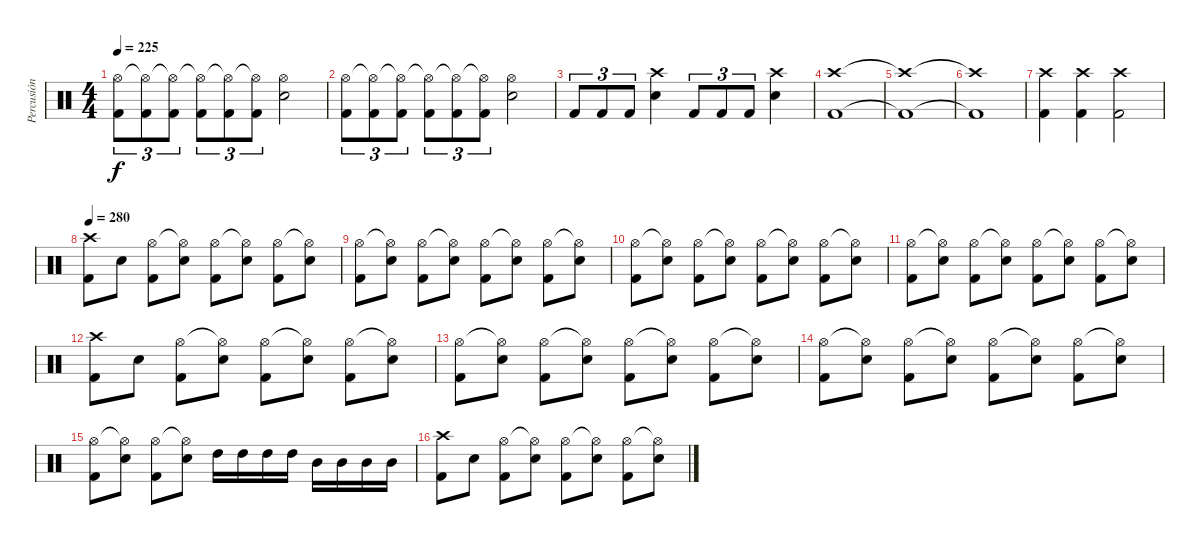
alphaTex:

\track ("Percusión" "Percusión") {instrument percussion}
\staff {score}
\articulation defaults
\ts (4 4)
\tempo 225
\clef neutral
\ks c
("Kick (hit) 2" "Hi-Hat (open)").8{tu (3 2) dy f} ("Kick (hit) 2" "Hi-Hat (open)"{t}).8{tu (3 2)} ("Kick (hit) 2" "Hi-Hat (open)"{t}).8{tu (3 2)} ("Kick (hit) 2" "Hi-Hat (open)"{t}).8{tu (3 2)} ("Kick (hit) 2" "Hi-Hat (open)"{t}).8{tu (3 2)} ("Kick (hit) 2" "Hi-Hat (open)"{t}).8{tu (3 2)} ("Snare (hit) 2" "Hi-Hat (open)").2 |
("Kick (hit) 2" "Hi-Hat (open)").8{tu (3 2)} ("Kick (hit) 2" "Hi-Hat (open)"{t}).8{tu (3 2)} ("Kick (hit) 2" "Hi-Hat (open)"{t}).8{tu (3 2)} ("Kick (hit) 2" "Hi-Hat (open)"{t}).8{tu (3 2)} ("Kick (hit) 2" "Hi-Hat (open)"{t}).8{tu (3 2)} ("Kick (hit) 2" "Hi-Hat (open)"{t}).8{tu (3 2)} ("Snare (hit) 2" "Hi-Hat (open)").2 |
"Kick (hit) 2".8{tu (3 2)} "Kick (hit) 2".8{tu (3 2)} "Kick (hit) 2".8{tu (3 2)} ("Snare (hit) 2" "Crash high (hit)").4 "Kick (hit) 2".8{tu (3 2)} "Kick (hit) 2".8{tu (3 2)} "Kick (hit) 2".8{tu (3 2)} ("Snare (hit) 2" "Crash high (hit)").4 |
("Kick (hit) 2" "Crash high (hit)").1 |
("Kick (hit) 2"{t} "Crash high (hit)"{t}).1 |
("Kick (hit) 2"{t} "Crash high (hit)"{t}).1 |
("Kick (hit) 2" "Crash high (hit)").4 ("Kick (hit) 2" "Crash high (hit)").4 ("Kick (hit) 2" "Crash high (hit)").2 |
\tempo 280
("Kick (hit) 2" "Crash high (hit)").8 "Snare (hit) 2".8 ("Kick (hit) 2" "Hi-Hat (open)").8 ("Snare (hit) 2" "Hi-Hat (open)"{t}).8 ("Kick (hit) 2" "Hi-Hat (open)").8 ("Snare (hit) 2" "Hi-Hat (open)"{t}).8 ("Kick (hit) 2" "Hi-Hat (open)").8 ("Snare (hit) 2" "Hi-Hat (open)"{t}).8 |
("Kick (hit) 2" "Hi-Hat (open)").8 ("Snare (hit) 2" "Hi-Hat (open)"{t}).8 ("Kick (hit) 2" "Hi-Hat (open)").8 ("Snare (hit) 2" "Hi-Hat (open)"{t}).8 ("Kick (hit) 2" "Hi-Hat (open)").8 ("Snare (hit) 2" "Hi-Hat (open)"{t}).8 ("Kick (hit) 2" "Hi-Hat (open)").8 ("Snare (hit) 2" "Hi-Hat (open)"{t}).8 |
("Kick (hit) 2" "Hi-Hat (open)").8 ("Snare (hit) 2" "Hi-Hat (open)"{t}).8 ("Kick (hit) 2" "Hi-Hat (open)").8 ("Snare (hit) 2" "Hi-Hat (open)"{t}).8 ("Kick (hit) 2" "Hi-Hat (open)").8 ("Snare (hit) 2" "Hi-Hat (open)"{t}).8 ("Kick (hit) 2" "Hi-Hat (open)").8 ("Snare (hit) 2" "Hi-Hat (open)"{t}).8 |
("Kick (hit) 2" "Hi-Hat (open)").8 ("Snare (hit) 2" "Hi-Hat (open)"{t}).8 ("Kick (hit) 2" "Hi-Hat (open)").8 ("Snare (hit) 2" "Hi-Hat (open)"{t}).8 ("Kick (hit) 2" "Hi-Hat (open)").8 ("Snare (hit) 2" "Hi-Hat (open)"{t}).8 ("Kick (hit) 2" "Hi-Hat (open)").8 ("Snare (hit) 2" "Hi-Hat (open)"{t}).8 |
("Kick (hit) 2" "Crash high (hit)").8 "Snare (hit) 2".8 ("Kick (hit) 2" "Hi-Hat (open)").8 ("Snare (hit) 2" "Hi-Hat (open)"{t}).8 ("Kick (hit) 2" "Hi-Hat (open)").8 ("Snare (hit) 2" "Hi-Hat (open)"{t}).8 ("Kick (hit) 2" "Hi-Hat (open)").8 ("Snare (hit) 2" "Hi-Hat (open)"{t}).8 |
("Kick (hit) 2" "Hi-Hat (open)").8 ("Snare (hit) 2" "Hi-Hat (open)"{t}).8 ("Kick (hit) 2" "Hi-Hat (open)").8 ("Snare (hit) 2" "Hi-Hat (open)"{t}).8 ("Kick (hit) 2" "Hi-Hat (open)").8 ("Snare (hit) 2" "Hi-Hat (open)"{t}).8 ("Kick (hit) 2" "Hi-Hat (open)").8 ("Snare (hit) 2" "Hi-Hat (open)"{t}).8 |
("Kick (hit) 2" "Hi-Hat (open)").8 ("Snare (hit) 2" "Hi-Hat (open)"{t}).8 ("Kick (hit) 2" "Hi-Hat (open)").8 ("Snare (hit) 2" "Hi-Hat (open)"{t}).8 ("Kick (hit) 2" "Hi-Hat (open)").8 ("Snare (hit) 2" "Hi-Hat (open)"{t}).8 ("Kick (hit) 2" "Hi-Hat (open)").8 ("Snare (hit) 2" "Hi-Hat (open)"{t}).8 |
("Kick (hit) 2" "Hi-Hat (open)").8 ("Snare (hit) 2" "Hi-Hat (open)"{t}).8 ("Kick (hit) 2" "Hi-Hat (open)").8 ("Snare (hit) 2" "Hi-Hat (open)"{t}).8 "High Tom (hit)".16 "High Tom (hit)".16 "High Tom (hit)".16 "High Tom (hit)".16 "Mid Tom (hit)".16 "Mid Tom (hit)".16 "Mid Tom (hit)".16 "Mid Tom (hit)".16 |
("Kick (hit) 2" "Crash high (hit)").8 "Snare (hit) 2".8 ("Kick (hit) 2" "Hi-Hat (open)").8 ("Snare (hit) 2" "Hi-Hat (open)"{t}).8 ("Kick (hit) 2" "Hi-Hat (open)").8 ("Snare (hit) 2" "Hi-Hat (open)"{t}).8 ("Kick (hit) 2" "Hi-Hat (open)").8 ("Snare (hit) 2" "Hi-Hat (open)"{t}).8
